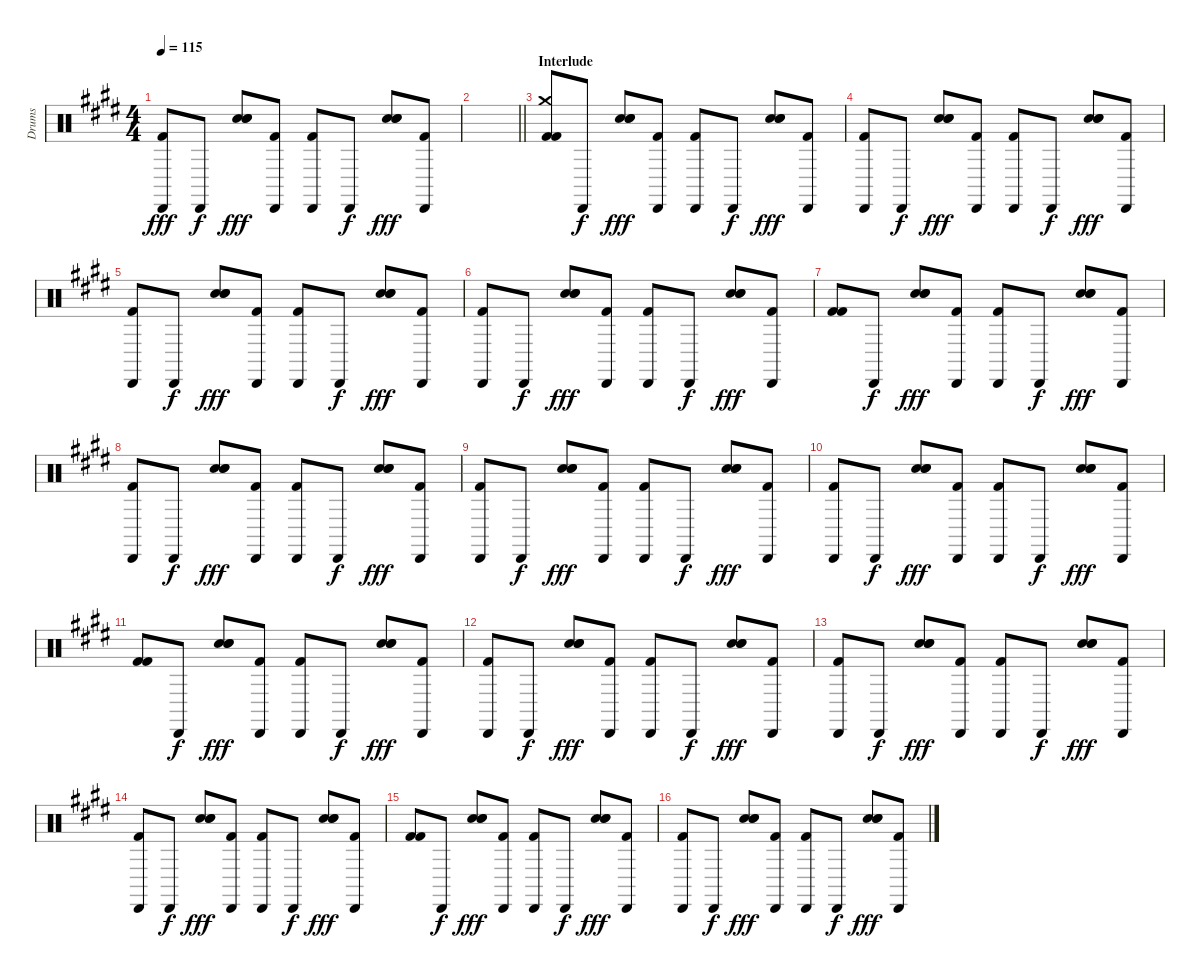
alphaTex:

\track ("Drums" "Drums") {instrument percussion}
\staff {score}
\articulation defaults
\ts (4 4)
\tempo 115
\clef neutral
\ks c#minor
("Cabasa (hit)" "Kick (hit) 2").8{dy fff} "Cabasa (hit)".8{dy f} ("Snare (hit) 2" "Hand Clap (hit)" "Hand Clap (hit)").8{bd 30 dy fff} ("Cabasa (hit)" "Kick (hit) 2").8 ("Cabasa (hit)" "Kick (hit) 2").8 "Cabasa (hit)".8{dy f} ("Snare (hit) 2" "Hand Clap (hit)" "Hand Clap (hit)").8{bd 30 dy fff} ("Cabasa (hit)" "Kick (hit) 2").8 |
\barLineRight lightlight
|
\section ("" "Interlude")
("Crash medium (hit)" "Kick (hit) 2" "Kick (hit) 2").8 "Cabasa (hit)".8{dy f} ("Snare (hit) 2" "Hand Clap (hit)" "Hand Clap (hit)").8{bd 30 dy fff} ("Cabasa (hit)" "Kick (hit) 2").8 ("Cabasa (hit)" "Kick (hit) 2").8 "Cabasa (hit)".8{dy f} ("Snare (hit) 2" "Hand Clap (hit)" "Hand Clap (hit)").8{bd 30 dy fff} ("Cabasa (hit)" "Kick (hit) 2").8 |
("Cabasa (hit)" "Kick (hit) 2").8 "Cabasa (hit)".8{dy f} ("Snare (hit) 2" "Hand Clap (hit)" "Hand Clap (hit)").8{bd 30 dy fff} ("Cabasa (hit)" "Kick (hit) 2").8 ("Cabasa (hit)" "Kick (hit) 2").8 "Cabasa (hit)".8{dy f} ("Snare (hit) 2" "Hand Clap (hit)" "Hand Clap (hit)").8{bd 30 dy fff} ("Cabasa (hit)" "Kick (hit) 2").8 |
("Cabasa (hit)" "Kick (hit) 2").8 "Cabasa (hit)".8{dy f} ("Snare (hit) 2" "Hand Clap (hit)" "Hand Clap (hit)").8{bd 30 dy fff} ("Cabasa (hit)" "Kick (hit) 2").8 ("Cabasa (hit)" "Kick (hit) 2").8 "Cabasa (hit)".8{dy f} ("Snare (hit) 2" "Hand Clap (hit)" "Hand Clap (hit)").8{bd 30 dy fff} ("Cabasa (hit)" "Kick (hit) 2").8 |
("Cabasa (hit)" "Kick (hit) 2").8 "Cabasa (hit)".8{dy f} ("Snare (hit) 2" "Hand Clap (hit)" "Hand Clap (hit)").8{bd 30 dy fff} ("Cabasa (hit)" "Kick (hit) 2").8 ("Cabasa (hit)" "Kick (hit) 2").8 "Cabasa (hit)".8{dy f} ("Snare (hit) 2" "Hand Clap (hit)" "Hand Clap (hit)").8{bd 30 dy fff} ("Cabasa (hit)" "Kick (hit) 2").8 |
("Kick (hit) 2" "Kick (hit) 2").8 "Cabasa (hit)".8{dy f} ("Snare (hit) 2" "Hand Clap (hit)" "Hand Clap (hit)").8{bd 30 dy fff} ("Cabasa (hit)" "Kick (hit) 2").8 ("Cabasa (hit)" "Kick (hit) 2").8 "Cabasa (hit)".8{dy f} ("Snare (hit) 2" "Hand Clap (hit)" "Hand Clap (hit)").8{bd 30 dy fff} ("Cabasa (hit)" "Kick (hit) 2").8 |
("Cabasa (hit)" "Kick (hit) 2").8 "Cabasa (hit)".8{dy f} ("Snare (hit) 2" "Hand Clap (hit)" "Hand Clap (hit)").8{bd 30 dy fff} ("Cabasa (hit)" "Kick (hit) 2").8 ("Cabasa (hit)" "Kick (hit) 2").8 "Cabasa (hit)".8{dy f} ("Snare (hit) 2" "Hand Clap (hit)" "Hand Clap (hit)").8{bd 30 dy fff} ("Cabasa (hit)" "Kick (hit) 2").8 |
("Cabasa (hit)" "Kick (hit) 2").8 "Cabasa (hit)".8{dy f} ("Snare (hit) 2" "Hand Clap (hit)" "Hand Clap (hit)").8{bd 30 dy fff} ("Cabasa (hit)" "Kick (hit) 2").8 ("Cabasa (hit)" "Kick (hit) 2").8 "Cabasa (hit)".8{dy f} ("Snare (hit) 2" "Hand Clap (hit)" "Hand Clap (hit)").8{bd 30 dy fff} ("Cabasa (hit)" "Kick (hit) 2").8 |
("Cabasa (hit)" "Kick (hit) 2").8 "Cabasa (hit)".8{dy f} ("Snare (hit) 2" "Hand Clap (hit)" "Hand Clap (hit)").8{bd 30 dy fff} ("Cabasa (hit)" "Kick (hit) 2").8 ("Cabasa (hit)" "Kick (hit) 2").8 "Cabasa (hit)".8{dy f} ("Snare (hit) 2" "Hand Clap (hit)" "Hand Clap (hit)").8{bd 30 dy fff} ("Cabasa (hit)" "Kick (hit) 2").8 |
("Kick (hit) 2" "Kick (hit) 2").8 "Cabasa (hit)".8{dy f} ("Snare (hit) 2" "Hand Clap (hit)" "Hand Clap (hit)").8{bd 30 dy fff} ("Cabasa (hit)" "Kick (hit) 2").8 ("Cabasa (hit)" "Kick (hit) 2").8 "Cabasa (hit)".8{dy f} ("Snare (hit) 2" "Hand Clap (hit)" "Hand Clap (hit)").8{bd 30 dy fff} ("Cabasa (hit)" "Kick (hit) 2").8 |
("Cabasa (hit)" "Kick (hit) 2").8 "Cabasa (hit)".8{dy f} ("Snare (hit) 2" "Hand Clap (hit)" "Hand Clap (hit)").8{bd 30 dy fff} ("Cabasa (hit)" "Kick (hit) 2").8 ("Cabasa (hit)" "Kick (hit) 2").8 "Cabasa (hit)".8{dy f} ("Snare (hit) 2" "Hand Clap (hit)" "Hand Clap (hit)").8{bd 30 dy fff} ("Cabasa (hit)" "Kick (hit) 2").8 |
("Cabasa (hit)" "Kick (hit) 2").8 "Cabasa (hit)".8{dy f} ("Snare (hit) 2" "Hand Clap (hit)" "Hand Clap (hit)").8{bd 30 dy fff} ("Cabasa (hit)" "Kick (hit) 2").8 ("Cabasa (hit)" "Kick (hit) 2").8 "Cabasa (hit)".8{dy f} ("Snare (hit) 2" "Hand Clap (hit)" "Hand Clap (hit)").8{bd 30 dy fff} ("Cabasa (hit)" "Kick (hit) 2").8 |
("Cabasa (hit)" "Kick (hit) 2").8 "Cabasa (hit)".8{dy f} ("Snare (hit) 2" "Hand Clap (hit)" "Hand Clap (hit)").8{bd 30 dy fff} ("Cabasa (hit)" "Kick (hit) 2").8 ("Cabasa (hit)" "Kick (hit) 2").8 "Cabasa (hit)".8{dy f} ("Snare (hit) 2" "Hand Clap (hit)" "Hand Clap (hit)").8{bd 30 dy fff} ("Cabasa (hit)" "Kick (hit) 2").8 |
("Kick (hit) 2" "Kick (hit) 2").8 "Cabasa (hit)".8{dy f} ("Snare (hit) 2" "Hand Clap (hit)" "Hand Clap (hit)").8{bd 30 dy fff} ("Cabasa (hit)" "Kick (hit) 2").8 ("Cabasa (hit)" "Kick (hit) 2").8 "Cabasa (hit)".8{dy f} ("Snare (hit) 2" "Hand Clap (hit)" "Hand Clap (hit)").8{bd 30 dy fff} ("Cabasa (hit)" "Kick (hit) 2").8 |
("Cabasa (hit)" "Kick (hit) 2").8 "Cabasa (hit)".8{dy f} ("Snare (hit) 2" "Hand Clap (hit)" "Hand Clap (hit)").8{bd 30 dy fff} ("Cabasa (hit)" "Kick (hit) 2").8 ("Cabasa (hit)" "Kick (hit) 2").8 "Cabasa (hit)".8{dy f} ("Snare (hit) 2" "Hand Clap (hit)" "Hand Clap (hit)").8{bd 30 dy fff} ("Cabasa (hit)" "Kick (hit) 2").8
